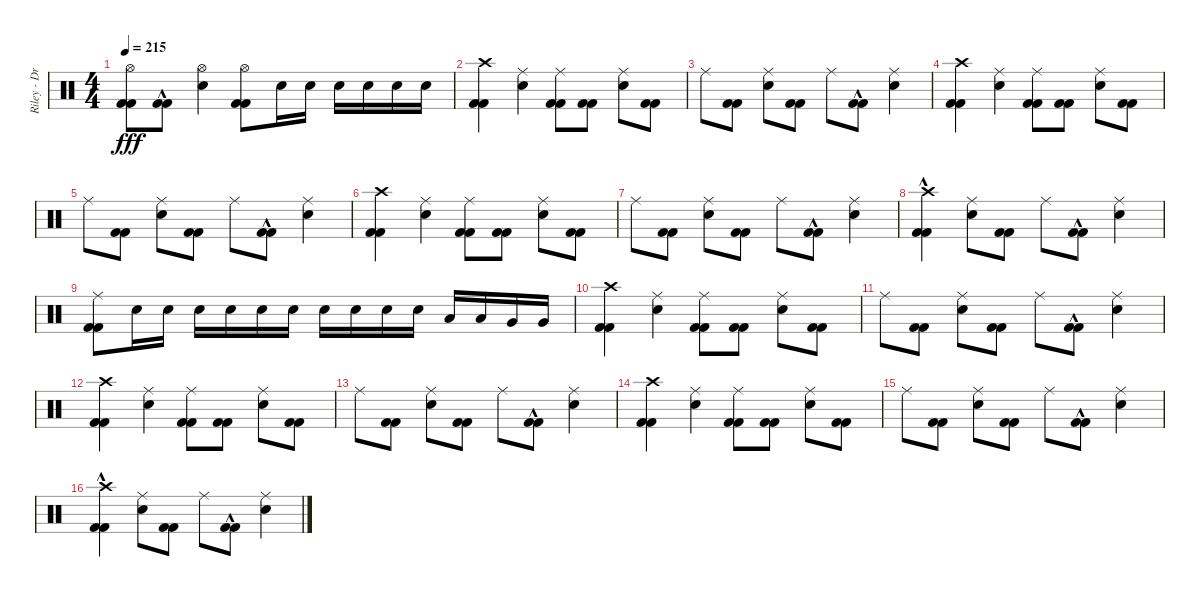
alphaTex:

\track ("Riley - Drums" "Riley - Dr") {instrument percussion}
\staff {score}
\articulation defaults
\ts (4 4)
\tempo 215
\clef neutral
\ks c
("Kick (hit) 2" "Kick (hit) 2" "Hi-Hat (open)").8{dy fff} ("Kick (hit) 2"{hac} "Kick (hit) 2"{hac}).8 ("Electric Snare (hit)" "Hi-Hat (open)").4 ("Kick (hit) 2" "Kick (hit) 2" "Hi-Hat (open)").8 "Electric Snare (hit)".16 "Electric Snare (hit)".16 "Electric Snare (hit)".16 "Electric Snare (hit)".16 "Electric Snare (hit)".16 "Electric Snare (hit)".16 |
("Kick (hit) 2" "Kick (hit) 2" "Crash high (hit)").4 ("Electric Snare (hit)" "Ride (middle)").4 ("Kick (hit) 2" "Kick (hit) 2" "Ride (middle)").8 ("Kick (hit) 2" "Kick (hit) 2").8 ("Electric Snare (hit)" "Ride (middle)").8 ("Kick (hit) 2" "Kick (hit) 2").8 |
"Ride (middle)".8 ("Kick (hit) 2" "Kick (hit) 2").8 ("Electric Snare (hit)" "Ride (middle)").8 ("Kick (hit) 2" "Kick (hit) 2").8 "Ride (middle)".8 ("Kick (hit) 2"{hac} "Kick (hit) 2"{hac}).8 ("Electric Snare (hit)" "Ride (middle)").4 |
("Kick (hit) 2" "Kick (hit) 2" "Crash high (hit)").4 ("Electric Snare (hit)" "Ride (middle)").4 ("Kick (hit) 2" "Kick (hit) 2" "Ride (middle)").8 ("Kick (hit) 2" "Kick (hit) 2").8 ("Electric Snare (hit)" "Ride (middle)").8 ("Kick (hit) 2" "Kick (hit) 2").8 |
"Ride (middle)".8 ("Kick (hit) 2" "Kick (hit) 2").8 ("Electric Snare (hit)" "Ride (middle)").8 ("Kick (hit) 2" "Kick (hit) 2").8 "Ride (middle)".8 ("Kick (hit) 2"{hac} "Kick (hit) 2"{hac}).8 ("Electric Snare (hit)" "Ride (middle)").4 |
("Kick (hit) 2" "Kick (hit) 2" "Crash high (hit)").4 ("Electric Snare (hit)" "Ride (middle)").4 ("Kick (hit) 2" "Kick (hit) 2" "Ride (middle)").8 ("Kick (hit) 2" "Kick (hit) 2").8 ("Electric Snare (hit)" "Ride (middle)").8 ("Kick (hit) 2" "Kick (hit) 2").8 |
"Ride (middle)".8 ("Kick (hit) 2" "Kick (hit) 2").8 ("Electric Snare (hit)" "Ride (middle)").8 ("Kick (hit) 2" "Kick (hit) 2").8 "Ride (middle)".8 ("Kick (hit) 2"{hac} "Kick (hit) 2"{hac}).8 ("Electric Snare (hit)" "Ride (middle)").4 |
("Kick (hit) 2"{hac} "Kick (hit) 2"{hac} "Crash high (hit)").4 ("Electric Snare (hit)" "Ride (middle)").8 ("Kick (hit) 2" "Kick (hit) 2").8 "Ride (middle)".8 ("Kick (hit) 2"{hac} "Kick (hit) 2"{hac}).8 ("Electric Snare (hit)" "Ride (middle)").4 |
("Kick (hit) 2" "Kick (hit) 2" "Ride (middle)").8 "Electric Snare (hit)".16 "Electric Snare (hit)".16 "Electric Snare (hit)".16 "Electric Snare (hit)".16 "Electric Snare (hit)".16 "Electric Snare (hit)".16 "Electric Snare (hit)".16 "Electric Snare (hit)".16 "Electric Snare (hit)".16 "Electric Snare (hit)".16 "Low Tom (hit)".16 "Low Tom (hit)".16 "Very Low Tom (hit)".16 "Very Low Tom (hit)".16 |
("Kick (hit) 2" "Kick (hit) 2" "Crash high (hit)").4 ("Electric Snare (hit)" "Ride (middle)").4 ("Kick (hit) 2" "Kick (hit) 2" "Ride (middle)").8 ("Kick (hit) 2" "Kick (hit) 2").8 ("Electric Snare (hit)" "Ride (middle)").8 ("Kick (hit) 2" "Kick (hit) 2").8 |
"Ride (middle)".8 ("Kick (hit) 2" "Kick (hit) 2").8 ("Electric Snare (hit)" "Ride (middle)").8 ("Kick (hit) 2" "Kick (hit) 2").8 "Ride (middle)".8 ("Kick (hit) 2"{hac} "Kick (hit) 2"{hac}).8 ("Electric Snare (hit)" "Ride (middle)").4 |
("Kick (hit) 2" "Kick (hit) 2" "Crash high (hit)").4 ("Electric Snare (hit)" "Ride (middle)").4 ("Kick (hit) 2" "Kick (hit) 2" "Ride (middle)").8 ("Kick (hit) 2" "Kick (hit) 2").8 ("Electric Snare (hit)" "Ride (middle)").8 ("Kick (hit) 2" "Kick (hit) 2").8 |
"Ride (middle)".8 ("Kick (hit) 2" "Kick (hit) 2").8 ("Electric Snare (hit)" "Ride (middle)").8 ("Kick (hit) 2" "Kick (hit) 2").8 "Ride (middle)".8 ("Kick (hit) 2"{hac} "Kick (hit) 2"{hac}).8 ("Electric Snare (hit)" "Ride (middle)").4 |
("Kick (hit) 2" "Kick (hit) 2" "Crash high (hit)").4 ("Electric Snare (hit)" "Ride (middle)").4 ("Kick (hit) 2" "Kick (hit) 2" "Ride (middle)").8 ("Kick (hit) 2" "Kick (hit) 2").8 ("Electric Snare (hit)" "Ride (middle)").8 ("Kick (hit) 2" "Kick (hit) 2").8 |
"Ride (middle)".8 ("Kick (hit) 2" "Kick (hit) 2").8 ("Electric Snare (hit)" "Ride (middle)").8 ("Kick (hit) 2" "Kick (hit) 2").8 "Ride (middle)".8 ("Kick (hit) 2"{hac} "Kick (hit) 2"{hac}).8 ("Electric Snare (hit)" "Ride (middle)").4 |
("Kick (hit) 2"{hac} "Kick (hit) 2"{hac} "Crash high (hit)").4 ("Electric Snare (hit)" "Ride (middle)").8 ("Kick (hit) 2" "Kick (hit) 2").8 "Ride (middle)".8 ("Kick (hit) 2"{hac} "Kick (hit) 2"{hac}).8 ("Electric Snare (hit)" "Ride (middle)").4
